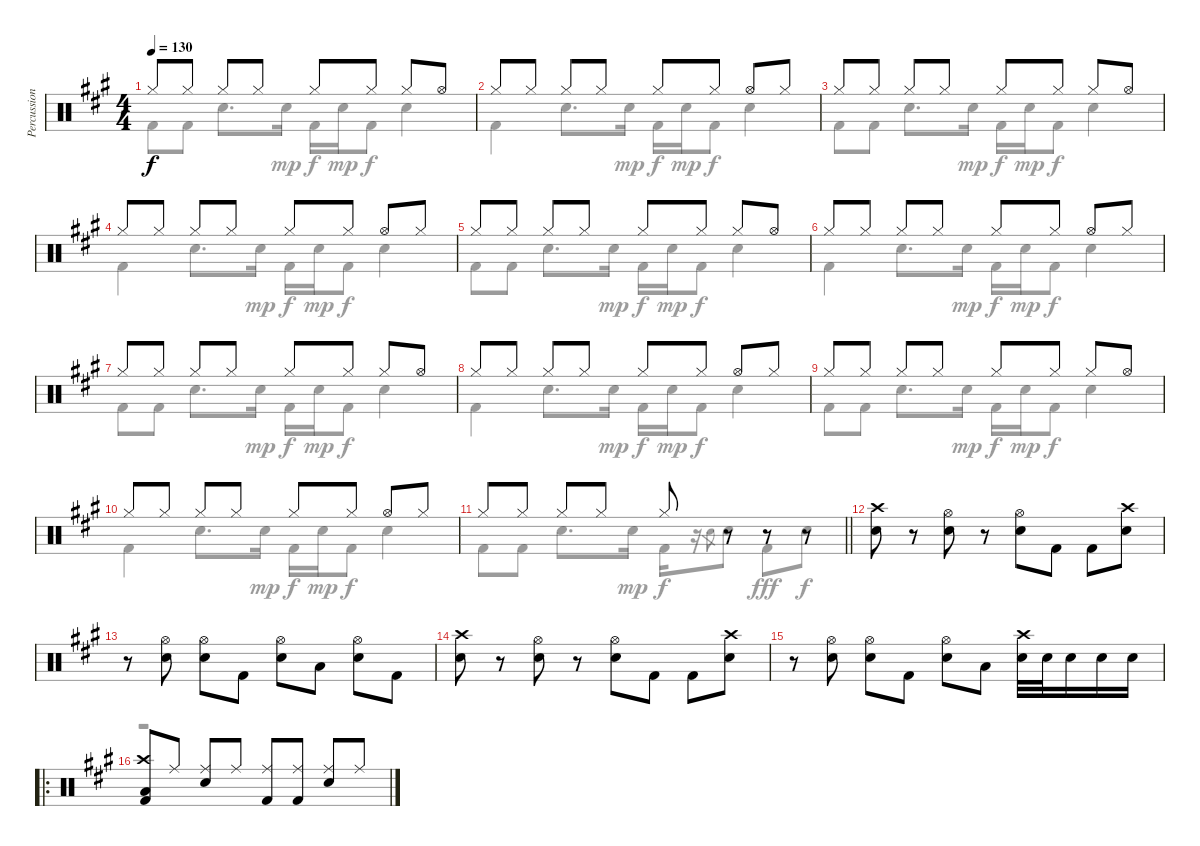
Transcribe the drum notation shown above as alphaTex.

\track ("Percussion" "Percussion") {instrument percussion}
\staff {score}
\articulation defaults
\voice
\ts (4 4)
\tempo 130
\clef neutral
\ks a "Hi-Hat (closed)".8{dy f} "Hi-Hat (closed)".8 "Hi-Hat (closed)".8 "Hi-Hat (closed)".8 "Hi-Hat (closed)".8 "Hi-Hat (closed)".8 "Hi-Hat (closed)".8 "Hi-Hat (open)".8
|
"Hi-Hat (closed)".8 "Hi-Hat (closed)".8 "Hi-Hat (closed)".8 "Hi-Hat (closed)".8 "Hi-Hat (closed)".8 "Hi-Hat (closed)".8 "Hi-Hat (open)".8 "Hi-Hat (closed)".8 |
"Hi-Hat (closed)".8 "Hi-Hat (closed)".8 "Hi-Hat (closed)".8 "Hi-Hat (closed)".8 "Hi-Hat (closed)".8 "Hi-Hat (closed)".8 "Hi-Hat (closed)".8 "Hi-Hat (open)".8 |
"Hi-Hat (closed)".8 "Hi-Hat (closed)".8 "Hi-Hat (closed)".8 "Hi-Hat (closed)".8 "Hi-Hat (closed)".8 "Hi-Hat (closed)".8 "Hi-Hat (open)".8 "Hi-Hat (closed)".8 |
"Hi-Hat (closed)".8 "Hi-Hat (closed)".8 "Hi-Hat (closed)".8 "Hi-Hat (closed)".8 "Hi-Hat (closed)".8 "Hi-Hat (closed)".8 "Hi-Hat (closed)".8 "Hi-Hat (open)".8 |
"Hi-Hat (closed)".8 "Hi-Hat (closed)".8 "Hi-Hat (closed)".8 "Hi-Hat (closed)".8 "Hi-Hat (closed)".8 "Hi-Hat (closed)".8 "Hi-Hat (open)".8 "Hi-Hat (closed)".8 |
"Hi-Hat (closed)".8 "Hi-Hat (closed)".8 "Hi-Hat (closed)".8 "Hi-Hat (closed)".8 "Hi-Hat (closed)".8 "Hi-Hat (closed)".8 "Hi-Hat (closed)".8 "Hi-Hat (open)".8 |
"Hi-Hat (closed)".8 "Hi-Hat (closed)".8 "Hi-Hat (closed)".8 "Hi-Hat (closed)".8 "Hi-Hat (closed)".8 "Hi-Hat (closed)".8 "Hi-Hat (open)".8 "Hi-Hat (closed)".8 |
"Hi-Hat (closed)".8 "Hi-Hat (closed)".8 "Hi-Hat (closed)".8 "Hi-Hat (closed)".8 "Hi-Hat (closed)".8 "Hi-Hat (closed)".8 "Hi-Hat (closed)".8 "Hi-Hat (open)".8 |
"Hi-Hat (closed)".8 "Hi-Hat (closed)".8 "Hi-Hat (closed)".8 "Hi-Hat (closed)".8 "Hi-Hat (closed)".8 "Hi-Hat (closed)".8 "Hi-Hat (open)".8 "Hi-Hat (closed)".8 |
\barLineRight lightlight "Hi-Hat (closed)".8 "Hi-Hat (closed)".8 "Hi-Hat (closed)".8 "Hi-Hat (closed)".8 "Hi-Hat (closed)".8
r.8 r.8 r.8 |
("Electric Snare (hit)" "Crash high (hit)").8 r.8 ("Hi-Hat (open)" "Electric Snare (hit)").8 r.8 ("Hi-Hat (open)" "Electric Snare (hit)").8 "Kick (hit) 2".8 "Kick (hit) 2".8 ("Crash high (hit)" "Electric Snare (hit)").8 |
r.8 ("Electric Snare (hit)" "Hi-Hat (open)").8 ("Electric Snare (hit)" "Hi-Hat (open)").8 "Kick (hit) 2".8 ("Hi-Hat (open)" "Electric Snare (hit)").8 "Low Floor Tom (hit)".8 ("Hi-Hat (open)" "Electric Snare (hit)").8 "Kick (hit) 2".8 |
("Electric Snare (hit)" "Crash high (hit)").8 r.8 ("Hi-Hat (open)" "Electric Snare (hit)").8 r.8 ("Hi-Hat (open)" "Electric Snare (hit)").8 "Kick (hit) 2".8 "Kick (hit) 2".8 ("Crash high (hit)" "Electric Snare (hit)").8 |
r.8 ("Electric Snare (hit)" "Hi-Hat (open)").8 ("Electric Snare (hit)" "Hi-Hat (open)").8 "Kick (hit) 2".8 ("Hi-Hat (open)" "Electric Snare (hit)").8 "Low Floor Tom (hit)".8 ("Crash high (hit)" "Electric Snare (hit)").32 "Electric Snare (hit)".32 "Electric Snare (hit)".16 "Electric Snare (hit)".16 "Electric Snare (hit)".16 |
\ro
("Crash high (hit)" "Low Floor Tom (hit)" "Kick (hit) 2").8 "Ride (middle)".8 ("Ride (middle)" "Electric Snare (hit)").8 "Ride (middle)".8 ("Ride (middle)" "Kick (hit) 2").8 ("Ride (middle)" "Kick (hit) 2").8 ("Ride (middle)" "Electric Snare (hit)").8 "Ride (middle)".8
\voice
\clef neutral
\ottava regular
\simile none
\ks a "Kick (hit) 2".8{dy f} "Kick (hit) 2".8 "Electric Snare (hit)".8{d} "Electric Snare (hit)".16{dy mp} "Kick (hit) 2".16{dy f} "Electric Snare (hit)".16{dy mp} "Kick (hit) 2".8{dy f} "Electric Snare (hit)".4
|
"Kick (hit) 2".4 "Electric Snare (hit)".8{d} "Electric Snare (hit)".16{dy mp} "Kick (hit) 2".16{dy f} "Electric Snare (hit)".16{dy mp} "Kick (hit) 2".8{dy f} "Electric Snare (hit)".4 |
"Kick (hit) 2".8 "Kick (hit) 2".8 "Electric Snare (hit)".8{d} "Electric Snare (hit)".16{dy mp} "Kick (hit) 2".16{dy f} "Electric Snare (hit)".16{dy mp} "Kick (hit) 2".8{dy f} "Electric Snare (hit)".4 |
"Kick (hit) 2".4 "Electric Snare (hit)".8{d} "Electric Snare (hit)".16{dy mp} "Kick (hit) 2".16{dy f} "Electric Snare (hit)".16{dy mp} "Kick (hit) 2".8{dy f} "Electric Snare (hit)".4 |
"Kick (hit) 2".8 "Kick (hit) 2".8 "Electric Snare (hit)".8{d} "Electric Snare (hit)".16{dy mp} "Kick (hit) 2".16{dy f} "Electric Snare (hit)".16{dy mp} "Kick (hit) 2".8{dy f} "Electric Snare (hit)".4 |
"Kick (hit) 2".4 "Electric Snare (hit)".8{d} "Electric Snare (hit)".16{dy mp} "Kick (hit) 2".16{dy f} "Electric Snare (hit)".16{dy mp} "Kick (hit) 2".8{dy f} "Electric Snare (hit)".4 |
"Kick (hit) 2".8 "Kick (hit) 2".8 "Electric Snare (hit)".8{d} "Electric Snare (hit)".16{dy mp} "Kick (hit) 2".16{dy f} "Electric Snare (hit)".16{dy mp} "Kick (hit) 2".8{dy f} "Electric Snare (hit)".4 |
"Kick (hit) 2".4 "Electric Snare (hit)".8{d} "Electric Snare (hit)".16{dy mp} "Kick (hit) 2".16{dy f} "Electric Snare (hit)".16{dy mp} "Kick (hit) 2".8{dy f} "Electric Snare (hit)".4 |
"Kick (hit) 2".8 "Kick (hit) 2".8 "Electric Snare (hit)".8{d} "Electric Snare (hit)".16{dy mp} "Kick (hit) 2".16{dy f} "Electric Snare (hit)".16{dy mp} "Kick (hit) 2".8{dy f} "Electric Snare (hit)".4 |
"Kick (hit) 2".4 "Electric Snare (hit)".8{d} "Electric Snare (hit)".16{dy mp} "Kick (hit) 2".16{dy f} "Electric Snare (hit)".16{dy mp} "Kick (hit) 2".8{dy f} "Electric Snare (hit)".4 |
\barLineRight lightlight "Kick (hit) 2".8 "Kick (hit) 2".8 "Electric Snare (hit)".8{d} "Electric Snare (hit)".16{dy mp} "Kick (hit) 2".16{dy f}
r.16 "Electric Snare (hit)".8{gr} "Electric Snare (hit)".8 "Kick (hit) 2".8{dy fff} "Electric Snare (hit)".8{dy f} |
|
|
|
|
r.1
